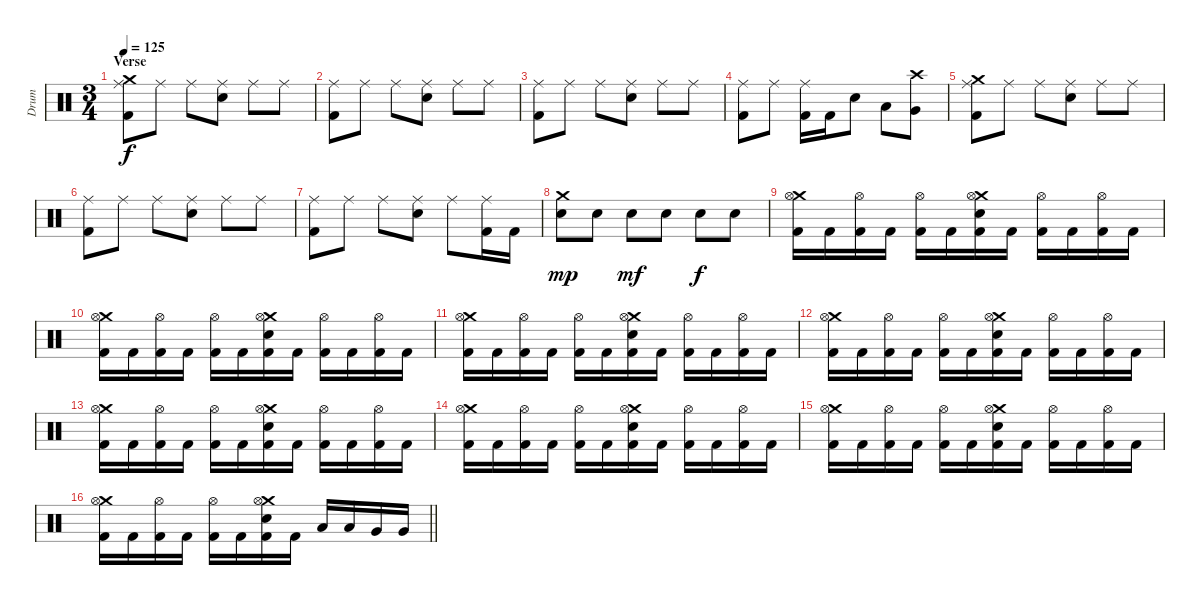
\track ("Drum" "Drum") {instrument percussion}
\staff {score}
\articulation defaults
\ts (3 4)
\section ("" "Verse")
\tempo 125
\clef neutral
\ks c
("Crash medium (hit)" "Ride (middle)" "Kick (hit) 2").8{dy f} "Ride (middle)".8 "Ride (middle)".8 ("Ride (middle)" "Electric Snare (hit)").8 "Ride (middle)".8 "Ride (middle)".8 |
("Ride (middle)" "Kick (hit) 2").8 "Ride (middle)".8 "Ride (middle)".8 ("Ride (middle)" "Electric Snare (hit)").8 "Ride (middle)".8 "Ride (middle)".8 |
("Ride (middle)" "Kick (hit) 2").8 "Ride (middle)".8 "Ride (middle)".8 ("Ride (middle)" "Electric Snare (hit)").8 "Ride (middle)".8 "Ride (middle)".8 |
("Ride (middle)" "Kick (hit) 2").8 "Ride (middle)".8 ("Ride (middle)" "Kick (hit) 2").16 "Kick (hit) 2".16 "Electric Snare (hit)".8 "Low Tom (hit)".8 ("Crash high (hit)" "Very Low Tom (hit)").8 |
("Crash medium (hit)" "Ride (middle)" "Kick (hit) 2").8 "Ride (middle)".8 "Ride (middle)".8 ("Ride (middle)" "Electric Snare (hit)").8 "Ride (middle)".8 "Ride (middle)".8 |
("Ride (middle)" "Kick (hit) 2").8 "Ride (middle)".8 "Ride (middle)".8 ("Ride (middle)" "Electric Snare (hit)").8 "Ride (middle)".8 "Ride (middle)".8 |
("Ride (middle)" "Kick (hit) 2").8 "Ride (middle)".8 "Ride (middle)".8 ("Ride (middle)" "Electric Snare (hit)").8 "Ride (middle)".8 ("Ride (middle)" "Kick (hit) 2").16 "Kick (hit) 2".16 |
("Crash medium (hit)" "Electric Snare (hit)").8{dy mp} "Electric Snare (hit)".8 "Electric Snare (hit)".8{dy mf} "Electric Snare (hit)".8 "Electric Snare (hit)".8{dy f} "Electric Snare (hit)".8 |
("Crash medium (hit)" "Hi-Hat (open)" "Kick (hit) 2").16 "Kick (hit) 2".16 ("Hi-Hat (open)" "Kick (hit) 2").16 "Kick (hit) 2".16 ("Hi-Hat (open)" "Kick (hit) 2").16 "Kick (hit) 2".16 ("Crash medium (hit)" "Hi-Hat (open)" "Electric Snare (hit)" "Kick (hit) 2").16 "Kick (hit) 2".16 ("Hi-Hat (open)" "Kick (hit) 2").16 "Kick (hit) 2".16 ("Hi-Hat (open)" "Kick (hit) 2").16 "Kick (hit) 2".16 |
("Crash medium (hit)" "Hi-Hat (open)" "Kick (hit) 2").16 "Kick (hit) 2".16 ("Hi-Hat (open)" "Kick (hit) 2").16 "Kick (hit) 2".16 ("Hi-Hat (open)" "Kick (hit) 2").16 "Kick (hit) 2".16 ("Crash medium (hit)" "Hi-Hat (open)" "Electric Snare (hit)" "Kick (hit) 2").16 "Kick (hit) 2".16 ("Hi-Hat (open)" "Kick (hit) 2").16 "Kick (hit) 2".16 ("Hi-Hat (open)" "Kick (hit) 2").16 "Kick (hit) 2".16 |
("Crash medium (hit)" "Hi-Hat (open)" "Kick (hit) 2").16 "Kick (hit) 2".16 ("Hi-Hat (open)" "Kick (hit) 2").16 "Kick (hit) 2".16 ("Hi-Hat (open)" "Kick (hit) 2").16 "Kick (hit) 2".16 ("Crash medium (hit)" "Hi-Hat (open)" "Electric Snare (hit)" "Kick (hit) 2").16 "Kick (hit) 2".16 ("Hi-Hat (open)" "Kick (hit) 2").16 "Kick (hit) 2".16 ("Hi-Hat (open)" "Kick (hit) 2").16 "Kick (hit) 2".16 |
("Crash medium (hit)" "Hi-Hat (open)" "Kick (hit) 2").16 "Kick (hit) 2".16 ("Hi-Hat (open)" "Kick (hit) 2").16 "Kick (hit) 2".16 ("Hi-Hat (open)" "Kick (hit) 2").16 "Kick (hit) 2".16 ("Crash medium (hit)" "Hi-Hat (open)" "Electric Snare (hit)" "Kick (hit) 2").16 "Kick (hit) 2".16 ("Hi-Hat (open)" "Kick (hit) 2").16 "Kick (hit) 2".16 ("Hi-Hat (open)" "Kick (hit) 2").16 "Kick (hit) 2".16 |
("Crash medium (hit)" "Hi-Hat (open)" "Kick (hit) 2").16 "Kick (hit) 2".16 ("Hi-Hat (open)" "Kick (hit) 2").16 "Kick (hit) 2".16 ("Hi-Hat (open)" "Kick (hit) 2").16 "Kick (hit) 2".16 ("Crash medium (hit)" "Hi-Hat (open)" "Electric Snare (hit)" "Kick (hit) 2").16 "Kick (hit) 2".16 ("Hi-Hat (open)" "Kick (hit) 2").16 "Kick (hit) 2".16 ("Hi-Hat (open)" "Kick (hit) 2").16 "Kick (hit) 2".16 |
("Crash medium (hit)" "Hi-Hat (open)" "Kick (hit) 2").16 "Kick (hit) 2".16 ("Hi-Hat (open)" "Kick (hit) 2").16 "Kick (hit) 2".16 ("Hi-Hat (open)" "Kick (hit) 2").16 "Kick (hit) 2".16 ("Crash medium (hit)" "Hi-Hat (open)" "Electric Snare (hit)" "Kick (hit) 2").16 "Kick (hit) 2".16 ("Hi-Hat (open)" "Kick (hit) 2").16 "Kick (hit) 2".16 ("Hi-Hat (open)" "Kick (hit) 2").16 "Kick (hit) 2".16 |
("Crash medium (hit)" "Hi-Hat (open)" "Kick (hit) 2").16 "Kick (hit) 2".16 ("Hi-Hat (open)" "Kick (hit) 2").16 "Kick (hit) 2".16 ("Hi-Hat (open)" "Kick (hit) 2").16 "Kick (hit) 2".16 ("Crash medium (hit)" "Hi-Hat (open)" "Electric Snare (hit)" "Kick (hit) 2").16 "Kick (hit) 2".16 ("Hi-Hat (open)" "Kick (hit) 2").16 "Kick (hit) 2".16 ("Hi-Hat (open)" "Kick (hit) 2").16 "Kick (hit) 2".16 |
\barLineRight lightlight
("Crash medium (hit)" "Hi-Hat (open)" "Kick (hit) 2").16 "Kick (hit) 2".16 ("Hi-Hat (open)" "Kick (hit) 2").16 "Kick (hit) 2".16 ("Hi-Hat (open)" "Kick (hit) 2").16 "Kick (hit) 2".16 ("Crash medium (hit)" "Hi-Hat (open)" "Electric Snare (hit)" "Kick (hit) 2").16 "Kick (hit) 2".16 "Low Tom (hit)".16 "Low Tom (hit)".16 "Very Low Tom (hit)".16 "Very Low Tom (hit)".16
